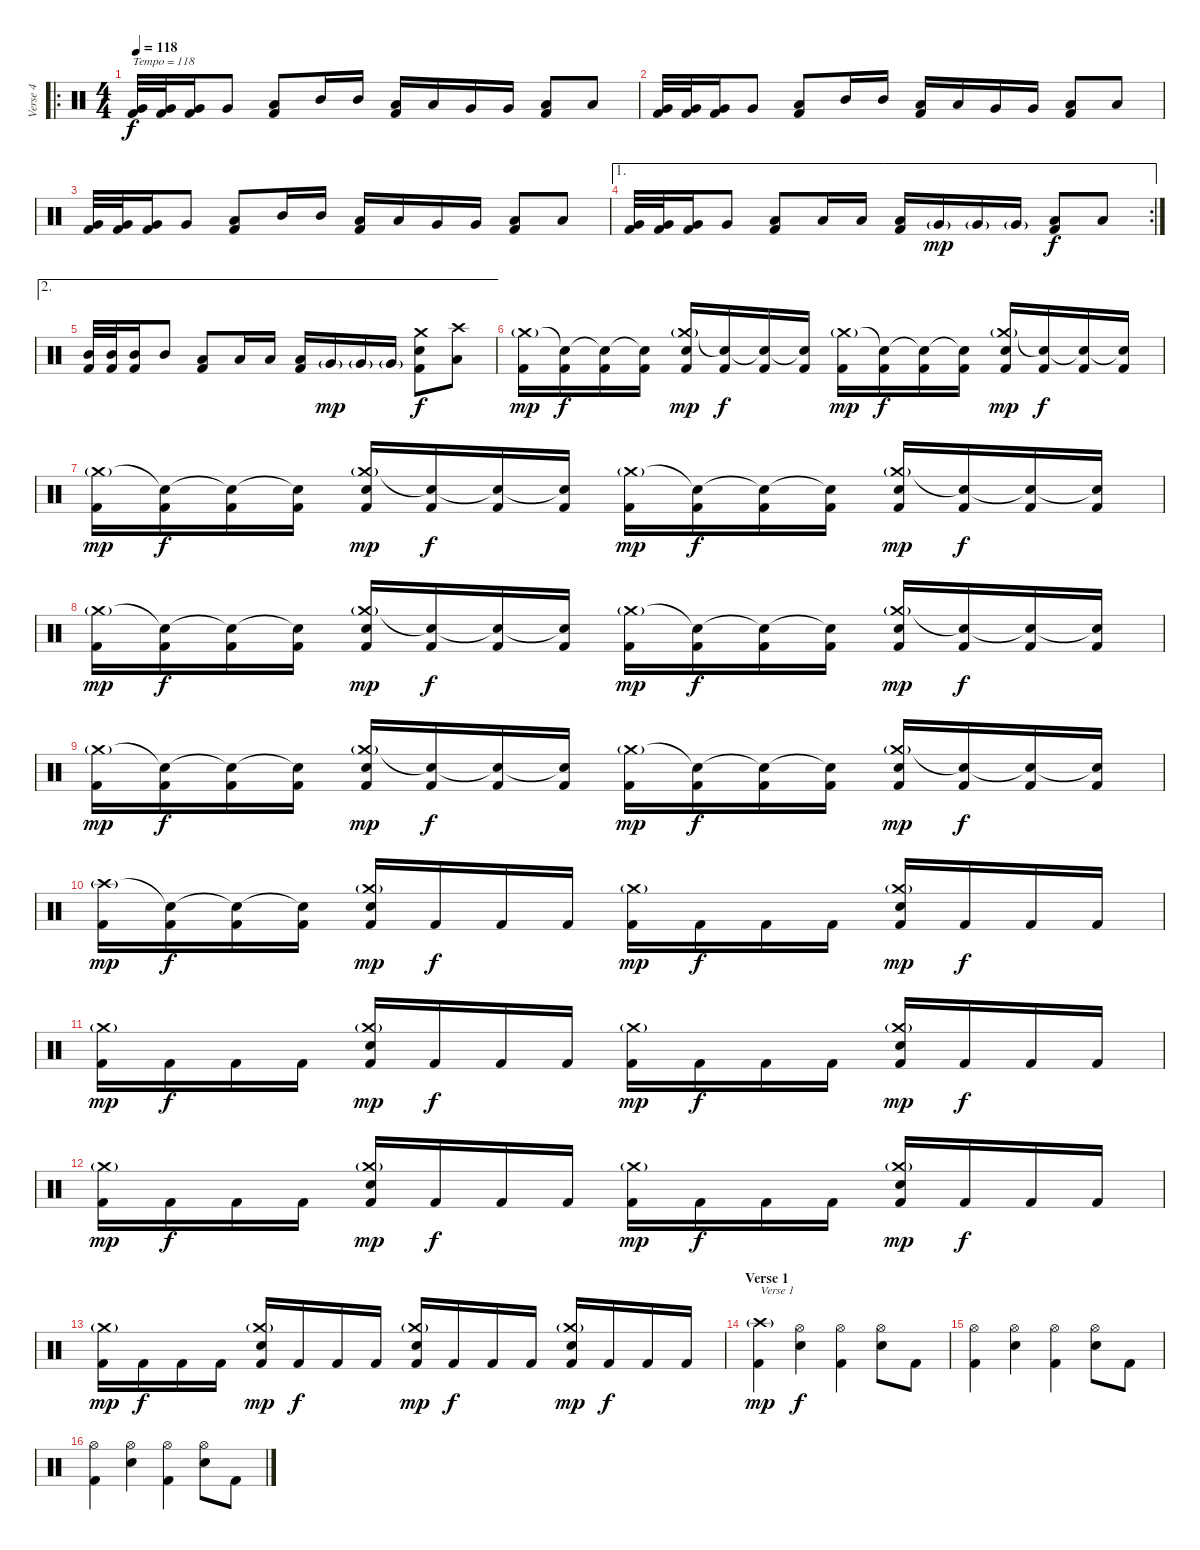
\track ("Verse 4" "Verse 4") {instrument percussion}
\staff {score}
\articulation defaults
\ro
\ts (4 4)
\tempo 118
\clef neutral
\ks c
("Very Low Tom (hit)" "Kick (hit) 2").32{txt "Tempo = 118" dy f} ("Very Low Tom (hit)" "Kick (hit) 2").32 ("Very Low Tom (hit)" "Kick (hit) 2").16 "Very Low Tom (hit)".8 ("Low Tom (hit)" "Kick (hit) 2").8 "Mid Tom (hit)".16 "Mid Tom (hit)".16 ("Low Tom (hit)" "Kick (hit) 2").16 "Low Tom (hit)".16 "Very Low Tom (hit)".16 "Very Low Tom (hit)".16 ("Low Floor Tom (hit)" "Kick (hit) 2").8 "Low Floor Tom (hit)".8 |
("Very Low Tom (hit)" "Kick (hit) 2").32 ("Very Low Tom (hit)" "Kick (hit) 2").32 ("Very Low Tom (hit)" "Kick (hit) 2").16 "Very Low Tom (hit)".8 ("Low Tom (hit)" "Kick (hit) 2").8 "Mid Tom (hit)".16 "Mid Tom (hit)".16 ("Low Tom (hit)" "Kick (hit) 2").16 "Low Tom (hit)".16 "Very Low Tom (hit)".16 "Very Low Tom (hit)".16 ("Low Floor Tom (hit)" "Kick (hit) 2").8 "Low Floor Tom (hit)".8 |
("Very Low Tom (hit)" "Kick (hit) 2").32 ("Very Low Tom (hit)" "Kick (hit) 2").32 ("Very Low Tom (hit)" "Kick (hit) 2").16 "Very Low Tom (hit)".8 ("Low Tom (hit)" "Kick (hit) 2").8 "Mid Tom (hit)".16 "Mid Tom (hit)".16 ("Low Tom (hit)" "Kick (hit) 2").16 "Low Tom (hit)".16 "Very Low Tom (hit)".16 "Very Low Tom (hit)".16 ("Low Floor Tom (hit)" "Kick (hit) 2").8 "Low Floor Tom (hit)".8 |
\ae 1
\rc 2
("Very Low Tom (hit)" "Kick (hit) 2").32 ("Very Low Tom (hit)" "Kick (hit) 2").32 ("Very Low Tom (hit)" "Kick (hit) 2").16 "Very Low Tom (hit)".8 ("Low Tom (hit)" "Kick (hit) 2").8 "Low Tom (hit)".16 "Low Tom (hit)".16 ("Low Tom (hit)" "Kick (hit) 2").16 "Very Low Tom (hit)"{g}.16{dy mp} "Very Low Tom (hit)"{g}.16 "Very Low Tom (hit)"{g}.16 ("Low Floor Tom (hit)" "Kick (hit) 2").8{dy f} "Low Floor Tom (hit)".8 |
\ae 2
("Mid Tom (hit)" "Kick (hit) 2").32 ("Mid Tom (hit)" "Kick (hit) 2").32 ("Mid Tom (hit)" "Kick (hit) 2").16 "Mid Tom (hit)".8 ("Low Tom (hit)" "Kick (hit) 2").8 "Low Tom (hit)".16 "Low Tom (hit)".16 ("Low Tom (hit)" "Kick (hit) 2").16 "Very Low Tom (hit)"{g}.16{dy mp} "Very Low Tom (hit)"{g}.16 "Very Low Tom (hit)"{g}.16 ("Crash medium (hit)" "Electric Snare (hit)" "Kick (hit) 2").8{dy f} ("Crash high (hit)" "Low Floor Tom (hit)").8 |
("Crash medium (hit)"{g} "Kick (hit) 2").16{dy mp} ("Snare (hit)"{t} "Kick (hit) 2").16{dy f} ("Snare (hit)"{t} "Kick (hit) 2").16 ("Snare (hit)"{t} "Kick (hit) 2").16 ("Crash medium (hit)"{g} "Electric Snare (hit)" "Kick (hit) 2").16{dy mp} ("Snare (hit)"{t} "Kick (hit) 2").16{dy f} ("Snare (hit)"{t} "Kick (hit) 2").16 ("Snare (hit)"{t} "Kick (hit) 2").16 ("Crash medium (hit)"{g} "Kick (hit) 2").16{dy mp} ("Snare (hit)"{t} "Kick (hit) 2").16{dy f} ("Snare (hit)"{t} "Kick (hit) 2").16 ("Snare (hit)"{t} "Kick (hit) 2").16 ("Crash medium (hit)"{g} "Electric Snare (hit)" "Kick (hit) 2").16{dy mp} ("Snare (hit)"{t} "Kick (hit) 2").16{dy f} ("Snare (hit)"{t} "Kick (hit) 2").16 ("Snare (hit)"{t} "Kick (hit) 2").16 |
("Crash medium (hit)"{g} "Kick (hit) 2").16{dy mp} ("Snare (hit)"{t} "Kick (hit) 2").16{dy f} ("Snare (hit)"{t} "Kick (hit) 2").16 ("Snare (hit)"{t} "Kick (hit) 2").16 ("Crash medium (hit)"{g} "Electric Snare (hit)" "Kick (hit) 2").16{dy mp} ("Snare (hit)"{t} "Kick (hit) 2").16{dy f} ("Snare (hit)"{t} "Kick (hit) 2").16 ("Snare (hit)"{t} "Kick (hit) 2").16 ("Crash medium (hit)"{g} "Kick (hit) 2").16{dy mp} ("Snare (hit)"{t} "Kick (hit) 2").16{dy f} ("Snare (hit)"{t} "Kick (hit) 2").16 ("Snare (hit)"{t} "Kick (hit) 2").16 ("Crash medium (hit)"{g} "Electric Snare (hit)" "Kick (hit) 2").16{dy mp} ("Snare (hit)"{t} "Kick (hit) 2").16{dy f} ("Snare (hit)"{t} "Kick (hit) 2").16 ("Snare (hit)"{t} "Kick (hit) 2").16 |
("Crash medium (hit)"{g} "Kick (hit) 2").16{dy mp} ("Snare (hit)"{t} "Kick (hit) 2").16{dy f} ("Snare (hit)"{t} "Kick (hit) 2").16 ("Snare (hit)"{t} "Kick (hit) 2").16 ("Crash medium (hit)"{g} "Electric Snare (hit)" "Kick (hit) 2").16{dy mp} ("Snare (hit)"{t} "Kick (hit) 2").16{dy f} ("Snare (hit)"{t} "Kick (hit) 2").16 ("Snare (hit)"{t} "Kick (hit) 2").16 ("Crash medium (hit)"{g} "Kick (hit) 2").16{dy mp} ("Snare (hit)"{t} "Kick (hit) 2").16{dy f} ("Snare (hit)"{t} "Kick (hit) 2").16 ("Snare (hit)"{t} "Kick (hit) 2").16 ("Crash medium (hit)"{g} "Electric Snare (hit)" "Kick (hit) 2").16{dy mp} ("Snare (hit)"{t} "Kick (hit) 2").16{dy f} ("Snare (hit)"{t} "Kick (hit) 2").16 ("Snare (hit)"{t} "Kick (hit) 2").16 |
("Crash medium (hit)"{g} "Kick (hit) 2").16{dy mp} ("Snare (hit)"{t} "Kick (hit) 2").16{dy f} ("Snare (hit)"{t} "Kick (hit) 2").16 ("Snare (hit)"{t} "Kick (hit) 2").16 ("Crash medium (hit)"{g} "Electric Snare (hit)" "Kick (hit) 2").16{dy mp} ("Snare (hit)"{t} "Kick (hit) 2").16{dy f} ("Snare (hit)"{t} "Kick (hit) 2").16 ("Snare (hit)"{t} "Kick (hit) 2").16 ("Crash medium (hit)"{g} "Kick (hit) 2").16{dy mp} ("Snare (hit)"{t} "Kick (hit) 2").16{dy f} ("Snare (hit)"{t} "Kick (hit) 2").16 ("Snare (hit)"{t} "Kick (hit) 2").16 ("Crash medium (hit)"{g} "Electric Snare (hit)" "Kick (hit) 2").16{dy mp} ("Snare (hit)"{t} "Kick (hit) 2").16{dy f} ("Snare (hit)"{t} "Kick (hit) 2").16 ("Snare (hit)"{t} "Kick (hit) 2").16 |
("Crash high (hit)"{g} "Kick (hit) 2").16{dy mp} ("Snare (hit)"{t} "Kick (hit) 2").16{dy f} ("Snare (hit)"{t} "Kick (hit) 2").16 ("Snare (hit)"{t} "Kick (hit) 2").16 ("Crash medium (hit)"{g} "Electric Snare (hit)" "Kick (hit) 2").16{dy mp} "Kick (hit) 2".16{dy f} "Kick (hit) 2".16 "Kick (hit) 2".16 ("Crash medium (hit)"{g} "Kick (hit) 2").16{dy mp} "Kick (hit) 2".16{dy f} "Kick (hit) 2".16 "Kick (hit) 2".16 ("Crash medium (hit)"{g} "Electric Snare (hit)" "Kick (hit) 2").16{dy mp} "Kick (hit) 2".16{dy f} "Kick (hit) 2".16 "Kick (hit) 2".16 |
("Crash medium (hit)"{g} "Kick (hit) 2").16{dy mp} "Kick (hit) 2".16{dy f} "Kick (hit) 2".16 "Kick (hit) 2".16 ("Crash medium (hit)"{g} "Electric Snare (hit)" "Kick (hit) 2").16{dy mp} "Kick (hit) 2".16{dy f} "Kick (hit) 2".16 "Kick (hit) 2".16 ("Crash medium (hit)"{g} "Kick (hit) 2").16{dy mp} "Kick (hit) 2".16{dy f} "Kick (hit) 2".16 "Kick (hit) 2".16 ("Crash medium (hit)"{g} "Electric Snare (hit)" "Kick (hit) 2").16{dy mp} "Kick (hit) 2".16{dy f} "Kick (hit) 2".16 "Kick (hit) 2".16 |
("Crash medium (hit)"{g} "Kick (hit) 2").16{dy mp} "Kick (hit) 2".16{dy f} "Kick (hit) 2".16 "Kick (hit) 2".16 ("Crash medium (hit)"{g} "Electric Snare (hit)" "Kick (hit) 2").16{dy mp} "Kick (hit) 2".16{dy f} "Kick (hit) 2".16 "Kick (hit) 2".16 ("Crash medium (hit)"{g} "Kick (hit) 2").16{dy mp} "Kick (hit) 2".16{dy f} "Kick (hit) 2".16 "Kick (hit) 2".16 ("Crash medium (hit)"{g} "Electric Snare (hit)" "Kick (hit) 2").16{dy mp} "Kick (hit) 2".16{dy f} "Kick (hit) 2".16 "Kick (hit) 2".16 |
("Crash medium (hit)"{g} "Kick (hit) 2").16{dy mp} "Kick (hit) 2".16{dy f} "Kick (hit) 2".16 "Kick (hit) 2".16 ("Crash medium (hit)"{g} "Electric Snare (hit)" "Kick (hit) 2").16{dy mp} "Kick (hit) 2".16{dy f} "Kick (hit) 2".16 "Kick (hit) 2".16 ("Crash medium (hit)"{g} "Electric Snare (hit)" "Kick (hit) 2").16{dy mp} "Kick (hit) 2".16{dy f} "Kick (hit) 2".16 "Kick (hit) 2".16 ("Crash medium (hit)"{g} "Electric Snare (hit)" "Kick (hit) 2").16{dy mp} "Kick (hit) 2".16{dy f} "Kick (hit) 2".16 "Kick (hit) 2".16 |
\section ("" "Verse 1")
("Crash high (hit)"{g} "Kick (hit) 2").4{txt "Verse 1" dy mp} ("Hi-Hat (open)" "Electric Snare (hit)").4{dy f} ("Hi-Hat (open)" "Kick (hit) 2").4 ("Hi-Hat (open)" "Electric Snare (hit)").8 "Kick (hit) 2".8 |
("Hi-Hat (open)" "Kick (hit) 2").4 ("Hi-Hat (open)" "Electric Snare (hit)").4 ("Hi-Hat (open)" "Kick (hit) 2").4 ("Hi-Hat (open)" "Electric Snare (hit)").8 "Kick (hit) 2".8 |
("Hi-Hat (open)" "Kick (hit) 2").4 ("Hi-Hat (open)" "Electric Snare (hit)").4 ("Hi-Hat (open)" "Kick (hit) 2").4 ("Hi-Hat (open)" "Electric Snare (hit)").8 "Kick (hit) 2".8
